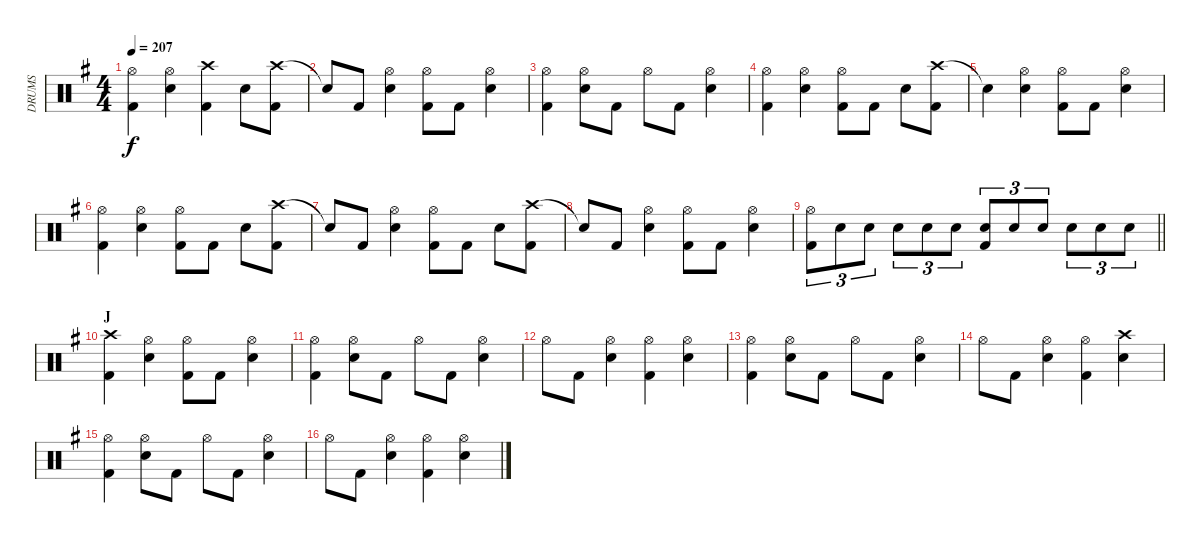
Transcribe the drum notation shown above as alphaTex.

\track ("DRUMS" "DRUMS") {instrument percussion}
\staff {score}
\articulation defaults
\ts (4 4)
\tempo 207
\clef neutral
\ks eminor
("Hi-Hat (open)" "Kick (hit) 2").4{dy f} ("Hi-Hat (open)" "Snare (hit) 2").4 ("Crash high (hit)" "Kick (hit) 2").4 "Snare (hit) 2".8 ("Crash high (hit)" "Kick (hit) 2").8 |
"Snare (hit)"{t}.8 "Kick (hit) 2".8 ("Hi-Hat (open)" "Snare (hit) 2").4 ("Hi-Hat (open)" "Kick (hit) 2").8 "Kick (hit) 2".8 ("Hi-Hat (open)" "Snare (hit) 2").4 |
("Hi-Hat (open)" "Kick (hit) 2").4 ("Hi-Hat (open)" "Snare (hit) 2").8 "Kick (hit) 2".8 "Hi-Hat (open)".8 "Kick (hit) 2".8 ("Hi-Hat (open)" "Snare (hit) 2").4 |
("Hi-Hat (open)" "Kick (hit) 2").4 ("Hi-Hat (open)" "Snare (hit) 2").4 ("Hi-Hat (open)" "Kick (hit) 2").8 "Kick (hit) 2".8 "Snare (hit) 2".8 ("Crash high (hit)" "Kick (hit) 2").8 |
"Snare (hit)"{t}.4 ("Hi-Hat (open)" "Snare (hit) 2").4 ("Hi-Hat (open)" "Kick (hit) 2").8 "Kick (hit) 2".8 ("Hi-Hat (open)" "Snare (hit) 2").4 |
("Hi-Hat (open)" "Kick (hit) 2").4 ("Hi-Hat (open)" "Snare (hit) 2").4 ("Hi-Hat (open)" "Kick (hit) 2").8 "Kick (hit) 2".8 "Snare (hit) 2".8 ("Crash high (hit)" "Kick (hit) 2").8 |
"Snare (hit)"{t}.8 "Kick (hit) 2".8 ("Hi-Hat (open)" "Snare (hit) 2").4 ("Hi-Hat (open)" "Kick (hit) 2").8 "Kick (hit) 2".8 "Snare (hit) 2".8 ("Crash high (hit)" "Kick (hit) 2").8 |
"Snare (hit)"{t}.8 "Kick (hit) 2".8 ("Hi-Hat (open)" "Snare (hit) 2").4 ("Hi-Hat (open)" "Kick (hit) 2").8 "Kick (hit) 2".8 ("Hi-Hat (open)" "Snare (hit) 2").4 |
\barLineRight lightlight
("Hi-Hat (open)" "Kick (hit) 2").8{tu (3 2)} "Snare (hit) 2".8{tu (3 2)} "Snare (hit) 2".8{tu (3 2)} "Snare (hit) 2".8{tu (3 2)} "Snare (hit) 2".8{tu (3 2)} "Snare (hit) 2".8{tu (3 2)} ("Snare (hit) 2" "Kick (hit) 2").8{tu (3 2)} "Snare (hit) 2".8{tu (3 2)} "Snare (hit) 2".8{tu (3 2)} "Snare (hit) 2".8{tu (3 2)} "Snare (hit) 2".8{tu (3 2)} "Snare (hit) 2".8{tu (3 2)} |
\section ("" "J")
("Crash high (hit)" "Kick (hit) 2").4 ("Hi-Hat (open)" "Snare (hit) 2").4 ("Hi-Hat (open)" "Kick (hit) 2").8 "Kick (hit) 2".8 ("Hi-Hat (open)" "Snare (hit) 2").4 |
("Hi-Hat (open)" "Kick (hit) 2").4 ("Hi-Hat (open)" "Snare (hit) 2").8 "Kick (hit) 2".8 "Hi-Hat (open)".8 "Kick (hit) 2".8 ("Hi-Hat (open)" "Snare (hit) 2").4 |
"Hi-Hat (open)".8 "Kick (hit) 2".8 ("Hi-Hat (open)" "Snare (hit) 2").4 ("Hi-Hat (open)" "Kick (hit) 2").4 ("Hi-Hat (open)" "Snare (hit) 2").4 |
("Hi-Hat (open)" "Kick (hit) 2").4 ("Hi-Hat (open)" "Snare (hit) 2").8 "Kick (hit) 2".8 "Hi-Hat (open)".8 "Kick (hit) 2".8 ("Hi-Hat (open)" "Snare (hit) 2").4 |
"Hi-Hat (open)".8 "Kick (hit) 2".8 ("Hi-Hat (open)" "Snare (hit) 2").4 ("Hi-Hat (open)" "Kick (hit) 2").4 ("Crash high (hit)" "Snare (hit) 2").4 |
("Hi-Hat (open)" "Kick (hit) 2").4 ("Hi-Hat (open)" "Snare (hit) 2").8 "Kick (hit) 2".8 "Hi-Hat (open)".8 "Kick (hit) 2".8 ("Hi-Hat (open)" "Snare (hit) 2").4 |
"Hi-Hat (open)".8 "Kick (hit) 2".8 ("Hi-Hat (open)" "Snare (hit) 2").4 ("Hi-Hat (open)" "Kick (hit) 2").4 ("Hi-Hat (open)" "Snare (hit) 2").4
